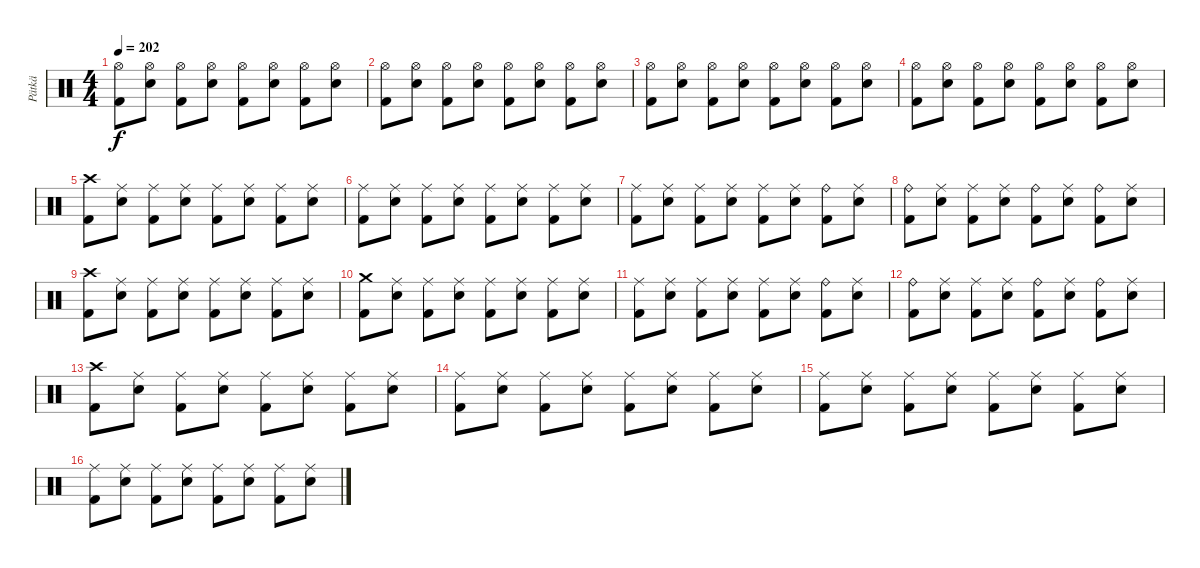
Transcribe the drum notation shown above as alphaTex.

\track ("Pätkä" "Pätkä") {instrument percussion}
\staff {score}
\articulation defaults
\ts (4 4)
\tempo 202
\clef neutral
\ks c
("Hi-Hat (open)" "Kick (hit) 2").8{dy f} ("Hi-Hat (open)" "Electric Snare (hit)").8 ("Hi-Hat (open)" "Kick (hit) 2").8 ("Hi-Hat (open)" "Electric Snare (hit)").8 ("Hi-Hat (open)" "Kick (hit) 2").8 ("Hi-Hat (open)" "Electric Snare (hit)").8 ("Hi-Hat (open)" "Kick (hit) 2").8 ("Hi-Hat (open)" "Electric Snare (hit)").8 |
("Hi-Hat (open)" "Kick (hit) 2").8 ("Hi-Hat (open)" "Electric Snare (hit)").8 ("Hi-Hat (open)" "Kick (hit) 2").8 ("Hi-Hat (open)" "Electric Snare (hit)").8 ("Hi-Hat (open)" "Kick (hit) 2").8 ("Hi-Hat (open)" "Electric Snare (hit)").8 ("Hi-Hat (open)" "Kick (hit) 2").8 ("Hi-Hat (open)" "Electric Snare (hit)").8 |
("Hi-Hat (open)" "Kick (hit) 2").8 ("Hi-Hat (open)" "Electric Snare (hit)").8 ("Hi-Hat (open)" "Kick (hit) 2").8 ("Hi-Hat (open)" "Electric Snare (hit)").8 ("Hi-Hat (open)" "Kick (hit) 2").8 ("Hi-Hat (open)" "Electric Snare (hit)").8 ("Hi-Hat (open)" "Kick (hit) 2").8 ("Hi-Hat (open)" "Electric Snare (hit)").8 |
("Hi-Hat (open)" "Kick (hit) 2").8 ("Hi-Hat (open)" "Electric Snare (hit)").8 ("Hi-Hat (open)" "Kick (hit) 2").8 ("Hi-Hat (open)" "Electric Snare (hit)").8 ("Hi-Hat (open)" "Kick (hit) 2").8 ("Hi-Hat (open)" "Electric Snare (hit)").8 ("Hi-Hat (open)" "Kick (hit) 2").8 ("Hi-Hat (open)" "Electric Snare (hit)").8 |
("Crash high (hit)" "Kick (hit) 2").8 ("Ride (middle)" "Electric Snare (hit)").8 ("Ride (middle)" "Kick (hit) 2").8 ("Ride (middle)" "Electric Snare (hit)").8 ("Ride (middle)" "Kick (hit) 2").8 ("Ride (middle)" "Electric Snare (hit)").8 ("Ride (middle)" "Kick (hit) 2").8 ("Ride (middle)" "Electric Snare (hit)").8 |
("Ride (middle)" "Kick (hit) 2").8 ("Ride (middle)" "Electric Snare (hit)").8 ("Ride (middle)" "Kick (hit) 2").8 ("Ride (middle)" "Electric Snare (hit)").8 ("Ride (middle)" "Kick (hit) 2").8 ("Ride (middle)" "Electric Snare (hit)").8 ("Ride (middle)" "Kick (hit) 2").8 ("Ride (middle)" "Electric Snare (hit)").8 |
("Ride (middle)" "Kick (hit) 2").8 ("Ride (middle)" "Electric Snare (hit)").8 ("Ride (middle)" "Kick (hit) 2").8 ("Ride (middle)" "Electric Snare (hit)").8 ("Ride (middle)" "Kick (hit) 2").8 ("Ride (middle)" "Electric Snare (hit)").8 ("Ride (bell)" "Kick (hit) 2").8 ("Ride (middle)" "Electric Snare (hit)").8 |
("Ride (bell)" "Kick (hit) 2").8 ("Ride (middle)" "Electric Snare (hit)").8 ("Ride (middle)" "Kick (hit) 2").8 ("Ride (middle)" "Electric Snare (hit)").8 ("Ride (bell)" "Kick (hit) 2").8 ("Ride (middle)" "Electric Snare (hit)").8 ("Ride (bell)" "Kick (hit) 2").8 ("Ride (middle)" "Electric Snare (hit)").8 |
("Crash high (hit)" "Kick (hit) 2").8 ("Ride (middle)" "Electric Snare (hit)").8 ("Ride (middle)" "Kick (hit) 2").8 ("Ride (middle)" "Electric Snare (hit)").8 ("Ride (middle)" "Kick (hit) 2").8 ("Ride (middle)" "Electric Snare (hit)").8 ("Ride (middle)" "Kick (hit) 2").8 ("Ride (middle)" "Electric Snare (hit)").8 |
("Crash medium (hit)" "Kick (hit) 2").8 ("Ride (middle)" "Electric Snare (hit)").8 ("Ride (middle)" "Kick (hit) 2").8 ("Ride (middle)" "Electric Snare (hit)").8 ("Ride (middle)" "Kick (hit) 2").8 ("Ride (middle)" "Electric Snare (hit)").8 ("Ride (middle)" "Kick (hit) 2").8 ("Ride (middle)" "Electric Snare (hit)").8 |
("Ride (middle)" "Kick (hit) 2").8 ("Ride (middle)" "Electric Snare (hit)").8 ("Ride (middle)" "Kick (hit) 2").8 ("Ride (middle)" "Electric Snare (hit)").8 ("Ride (middle)" "Kick (hit) 2").8 ("Ride (middle)" "Electric Snare (hit)").8 ("Ride (bell)" "Kick (hit) 2").8 ("Ride (middle)" "Electric Snare (hit)").8 |
("Ride (bell)" "Kick (hit) 2").8 ("Ride (middle)" "Electric Snare (hit)").8 ("Ride (middle)" "Kick (hit) 2").8 ("Ride (middle)" "Electric Snare (hit)").8 ("Ride (bell)" "Kick (hit) 2").8 ("Ride (middle)" "Electric Snare (hit)").8 ("Ride (bell)" "Kick (hit) 2").8 ("Ride (middle)" "Electric Snare (hit)").8 |
("Crash high (hit)" "Kick (hit) 2").8 ("Ride (middle)" "Electric Snare (hit)").8 ("Ride (middle)" "Kick (hit) 2").8 ("Ride (middle)" "Electric Snare (hit)").8 ("Ride (middle)" "Kick (hit) 2").8 ("Ride (middle)" "Electric Snare (hit)").8 ("Ride (middle)" "Kick (hit) 2").8 ("Ride (middle)" "Electric Snare (hit)").8 |
("Ride (middle)" "Kick (hit) 2").8 ("Ride (middle)" "Electric Snare (hit)").8 ("Ride (middle)" "Kick (hit) 2").8 ("Ride (middle)" "Electric Snare (hit)").8 ("Ride (middle)" "Kick (hit) 2").8 ("Ride (middle)" "Electric Snare (hit)").8 ("Ride (middle)" "Kick (hit) 2").8 ("Ride (middle)" "Electric Snare (hit)").8 |
("Ride (middle)" "Kick (hit) 2").8 ("Ride (middle)" "Electric Snare (hit)").8 ("Ride (middle)" "Kick (hit) 2").8 ("Ride (middle)" "Electric Snare (hit)").8 ("Ride (middle)" "Kick (hit) 2").8 ("Ride (middle)" "Electric Snare (hit)").8 ("Ride (middle)" "Kick (hit) 2").8 ("Ride (middle)" "Electric Snare (hit)").8 |
("Ride (middle)" "Kick (hit) 2").8 ("Ride (middle)" "Electric Snare (hit)").8 ("Ride (middle)" "Kick (hit) 2").8 ("Ride (middle)" "Electric Snare (hit)").8 ("Ride (middle)" "Kick (hit) 2").8 ("Ride (middle)" "Electric Snare (hit)").8 ("Ride (middle)" "Kick (hit) 2").8 ("Ride (middle)" "Electric Snare (hit)").8
